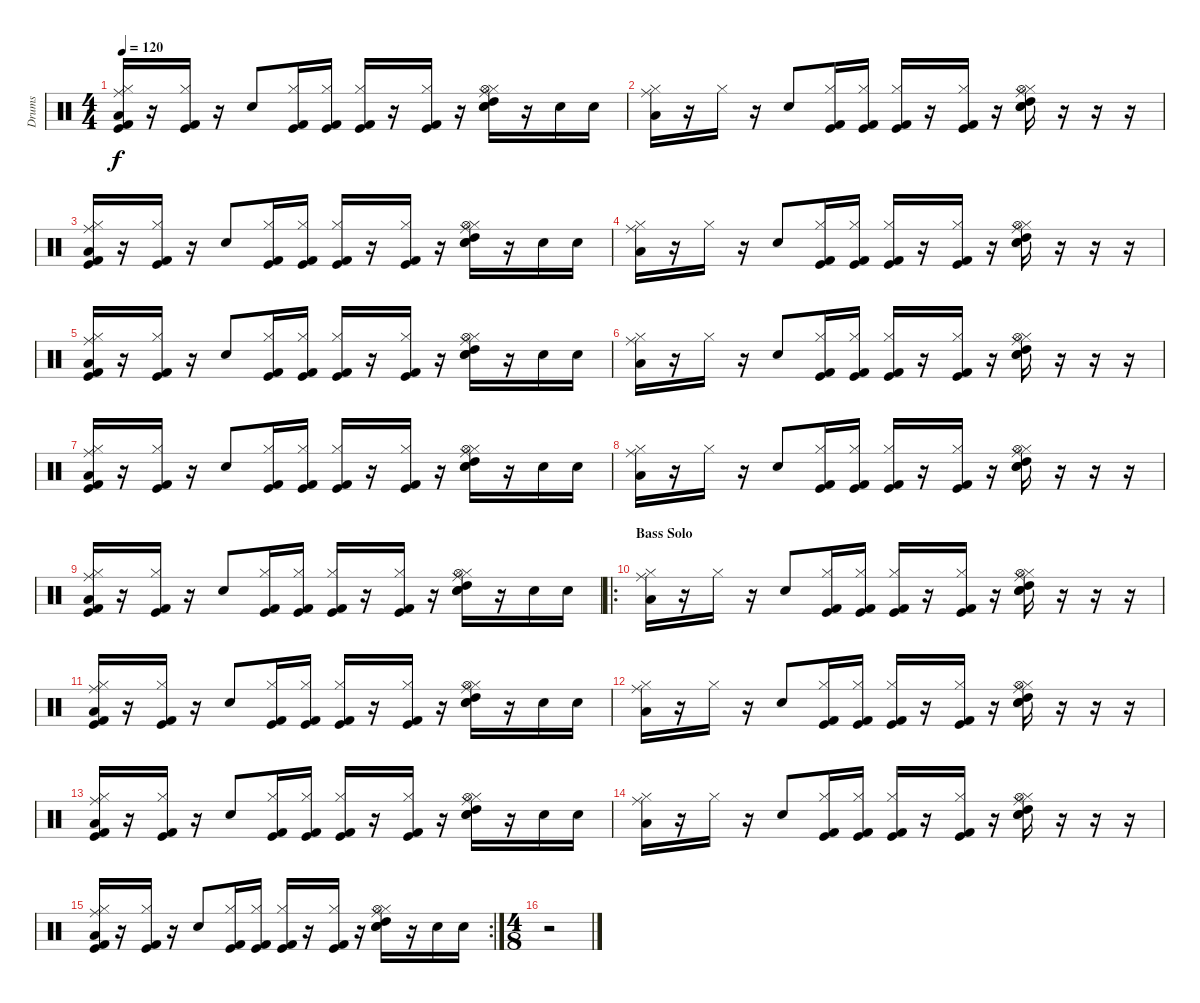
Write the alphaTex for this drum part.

\track ("Drums" "Drums") {instrument percussion}
\staff {score}
\articulation defaults
\ts (4 4)
\tempo 120
\clef neutral
\ks c
("Kick (hit)" "Hi-Hat (closed)" "Ride (middle)" "Low Tom (hit)" "Kick (hit) 2").16{dy f} r.16 ("Kick (hit)" "Hi-Hat (closed)" "Kick (hit) 2").16 r.16 "Snare (hit) 2".8 ("Kick (hit)" "Hi-Hat (closed)" "Kick (hit) 2").16 ("Kick (hit)" "Hi-Hat (closed)" "Kick (hit) 2").16 ("Kick (hit)" "Hi-Hat (closed)" "Kick (hit) 2").16 r.16 ("Kick (hit)" "Hi-Hat (closed)" "Kick (hit) 2").16 r.16 ("Snare (hit) 2" "Ride (middle)" "Hi-Hat (closed)" "Hi-Hat (open)" "High Tom (hit)" "Electric Snare (hit)").16 r.16 "Electric Snare (hit)".16 "Electric Snare (hit)".16 |
("Hi-Hat (closed)" "Ride (middle)" "Low Tom (hit)").16 r.16 "Hi-Hat (closed)".16 r.16 "Snare (hit) 2".8 ("Kick (hit)" "Hi-Hat (closed)" "Kick (hit) 2").16 ("Kick (hit)" "Hi-Hat (closed)" "Kick (hit) 2").16 ("Kick (hit)" "Hi-Hat (closed)" "Kick (hit) 2").16 r.16 ("Kick (hit)" "Hi-Hat (closed)" "Kick (hit) 2").16 r.16 ("Snare (hit) 2" "Ride (middle)" "Hi-Hat (closed)" "Hi-Hat (open)" "High Tom (hit)" "Electric Snare (hit)").16 r.16 r.16 r.16 |
("Kick (hit)" "Hi-Hat (closed)" "Ride (middle)" "Low Tom (hit)" "Kick (hit) 2").16 r.16 ("Kick (hit)" "Hi-Hat (closed)" "Kick (hit) 2").16 r.16 "Snare (hit) 2".8 ("Kick (hit)" "Hi-Hat (closed)" "Kick (hit) 2").16 ("Kick (hit)" "Hi-Hat (closed)" "Kick (hit) 2").16 ("Kick (hit)" "Hi-Hat (closed)" "Kick (hit) 2").16 r.16 ("Kick (hit)" "Hi-Hat (closed)" "Kick (hit) 2").16 r.16 ("Snare (hit) 2" "Ride (middle)" "Hi-Hat (closed)" "Hi-Hat (open)" "High Tom (hit)" "Electric Snare (hit)").16 r.16 "Electric Snare (hit)".16 "Electric Snare (hit)".16 |
("Hi-Hat (closed)" "Ride (middle)" "Low Tom (hit)").16 r.16 "Hi-Hat (closed)".16 r.16 "Snare (hit) 2".8 ("Kick (hit)" "Hi-Hat (closed)" "Kick (hit) 2").16 ("Kick (hit)" "Hi-Hat (closed)" "Kick (hit) 2").16 ("Kick (hit)" "Hi-Hat (closed)" "Kick (hit) 2").16 r.16 ("Kick (hit)" "Hi-Hat (closed)" "Kick (hit) 2").16 r.16 ("Snare (hit) 2" "Ride (middle)" "Hi-Hat (closed)" "Hi-Hat (open)" "High Tom (hit)" "Electric Snare (hit)").16 r.16 r.16 r.16 |
("Kick (hit)" "Hi-Hat (closed)" "Ride (middle)" "Low Tom (hit)" "Kick (hit) 2").16 r.16 ("Kick (hit)" "Hi-Hat (closed)" "Kick (hit) 2").16 r.16 "Snare (hit) 2".8 ("Kick (hit)" "Hi-Hat (closed)" "Kick (hit) 2").16 ("Kick (hit)" "Hi-Hat (closed)" "Kick (hit) 2").16 ("Kick (hit)" "Hi-Hat (closed)" "Kick (hit) 2").16 r.16 ("Kick (hit)" "Hi-Hat (closed)" "Kick (hit) 2").16 r.16 ("Snare (hit) 2" "Ride (middle)" "Hi-Hat (closed)" "Hi-Hat (open)" "High Tom (hit)" "Electric Snare (hit)").16 r.16 "Electric Snare (hit)".16 "Electric Snare (hit)".16 |
("Hi-Hat (closed)" "Ride (middle)" "Low Tom (hit)").16 r.16 "Hi-Hat (closed)".16 r.16 "Snare (hit) 2".8 ("Kick (hit)" "Hi-Hat (closed)" "Kick (hit) 2").16 ("Kick (hit)" "Hi-Hat (closed)" "Kick (hit) 2").16 ("Kick (hit)" "Hi-Hat (closed)" "Kick (hit) 2").16 r.16 ("Kick (hit)" "Hi-Hat (closed)" "Kick (hit) 2").16 r.16 ("Snare (hit) 2" "Ride (middle)" "Hi-Hat (closed)" "Hi-Hat (open)" "High Tom (hit)" "Electric Snare (hit)").16 r.16 r.16 r.16 |
("Kick (hit)" "Hi-Hat (closed)" "Ride (middle)" "Low Tom (hit)" "Kick (hit) 2").16 r.16 ("Kick (hit)" "Hi-Hat (closed)" "Kick (hit) 2").16 r.16 "Snare (hit) 2".8 ("Kick (hit)" "Hi-Hat (closed)" "Kick (hit) 2").16 ("Kick (hit)" "Hi-Hat (closed)" "Kick (hit) 2").16 ("Kick (hit)" "Hi-Hat (closed)" "Kick (hit) 2").16 r.16 ("Kick (hit)" "Hi-Hat (closed)" "Kick (hit) 2").16 r.16 ("Snare (hit) 2" "Ride (middle)" "Hi-Hat (closed)" "Hi-Hat (open)" "High Tom (hit)" "Electric Snare (hit)").16 r.16 "Electric Snare (hit)".16 "Electric Snare (hit)".16 |
("Hi-Hat (closed)" "Ride (middle)" "Low Tom (hit)").16 r.16 "Hi-Hat (closed)".16 r.16 "Snare (hit) 2".8 ("Kick (hit)" "Hi-Hat (closed)" "Kick (hit) 2").16 ("Kick (hit)" "Hi-Hat (closed)" "Kick (hit) 2").16 ("Kick (hit)" "Hi-Hat (closed)" "Kick (hit) 2").16 r.16 ("Kick (hit)" "Hi-Hat (closed)" "Kick (hit) 2").16 r.16 ("Snare (hit) 2" "Ride (middle)" "Hi-Hat (closed)" "Hi-Hat (open)" "High Tom (hit)" "Electric Snare (hit)").16 r.16 r.16 r.16 |
("Kick (hit)" "Hi-Hat (closed)" "Ride (middle)" "Low Tom (hit)" "Kick (hit) 2").16 r.16 ("Kick (hit)" "Hi-Hat (closed)" "Kick (hit) 2").16 r.16 "Snare (hit) 2".8 ("Kick (hit)" "Hi-Hat (closed)" "Kick (hit) 2").16 ("Kick (hit)" "Hi-Hat (closed)" "Kick (hit) 2").16 ("Kick (hit)" "Hi-Hat (closed)" "Kick (hit) 2").16 r.16 ("Kick (hit)" "Hi-Hat (closed)" "Kick (hit) 2").16 r.16 ("Snare (hit) 2" "Ride (middle)" "Hi-Hat (closed)" "Hi-Hat (open)" "High Tom (hit)" "Electric Snare (hit)").16 r.16 "Electric Snare (hit)".16 "Electric Snare (hit)".16 |
\ro
\section ("" "Bass Solo")
("Hi-Hat (closed)" "Ride (middle)" "Low Tom (hit)").16 r.16 "Hi-Hat (closed)".16 r.16 "Snare (hit) 2".8 ("Kick (hit)" "Hi-Hat (closed)" "Kick (hit) 2").16 ("Kick (hit)" "Hi-Hat (closed)" "Kick (hit) 2").16 ("Kick (hit)" "Hi-Hat (closed)" "Kick (hit) 2").16 r.16 ("Kick (hit)" "Hi-Hat (closed)" "Kick (hit) 2").16 r.16 ("Snare (hit) 2" "Ride (middle)" "Hi-Hat (closed)" "Hi-Hat (open)" "High Tom (hit)" "Electric Snare (hit)").16 r.16 r.16 r.16 |
("Kick (hit)" "Hi-Hat (closed)" "Ride (middle)" "Low Tom (hit)" "Kick (hit) 2").16 r.16 ("Kick (hit)" "Hi-Hat (closed)" "Kick (hit) 2").16 r.16 "Snare (hit) 2".8 ("Kick (hit)" "Hi-Hat (closed)" "Kick (hit) 2").16 ("Kick (hit)" "Hi-Hat (closed)" "Kick (hit) 2").16 ("Kick (hit)" "Hi-Hat (closed)" "Kick (hit) 2").16 r.16 ("Kick (hit)" "Hi-Hat (closed)" "Kick (hit) 2").16 r.16 ("Snare (hit) 2" "Ride (middle)" "Hi-Hat (closed)" "Hi-Hat (open)" "High Tom (hit)" "Electric Snare (hit)").16 r.16 "Electric Snare (hit)".16 "Electric Snare (hit)".16 |
("Hi-Hat (closed)" "Ride (middle)" "Low Tom (hit)").16 r.16 "Hi-Hat (closed)".16 r.16 "Snare (hit) 2".8 ("Kick (hit)" "Hi-Hat (closed)" "Kick (hit) 2").16 ("Kick (hit)" "Hi-Hat (closed)" "Kick (hit) 2").16 ("Kick (hit)" "Hi-Hat (closed)" "Kick (hit) 2").16 r.16 ("Kick (hit)" "Hi-Hat (closed)" "Kick (hit) 2").16 r.16 ("Snare (hit) 2" "Ride (middle)" "Hi-Hat (closed)" "Hi-Hat (open)" "High Tom (hit)" "Electric Snare (hit)").16 r.16 r.16 r.16 |
("Kick (hit)" "Hi-Hat (closed)" "Ride (middle)" "Low Tom (hit)" "Kick (hit) 2").16 r.16 ("Kick (hit)" "Hi-Hat (closed)" "Kick (hit) 2").16 r.16 "Snare (hit) 2".8 ("Kick (hit)" "Hi-Hat (closed)" "Kick (hit) 2").16 ("Kick (hit)" "Hi-Hat (closed)" "Kick (hit) 2").16 ("Kick (hit)" "Hi-Hat (closed)" "Kick (hit) 2").16 r.16 ("Kick (hit)" "Hi-Hat (closed)" "Kick (hit) 2").16 r.16 ("Snare (hit) 2" "Ride (middle)" "Hi-Hat (closed)" "Hi-Hat (open)" "High Tom (hit)" "Electric Snare (hit)").16 r.16 "Electric Snare (hit)".16 "Electric Snare (hit)".16 |
("Hi-Hat (closed)" "Ride (middle)" "Low Tom (hit)").16 r.16 "Hi-Hat (closed)".16 r.16 "Snare (hit) 2".8 ("Kick (hit)" "Hi-Hat (closed)" "Kick (hit) 2").16 ("Kick (hit)" "Hi-Hat (closed)" "Kick (hit) 2").16 ("Kick (hit)" "Hi-Hat (closed)" "Kick (hit) 2").16 r.16 ("Kick (hit)" "Hi-Hat (closed)" "Kick (hit) 2").16 r.16 ("Snare (hit) 2" "Ride (middle)" "Hi-Hat (closed)" "Hi-Hat (open)" "High Tom (hit)" "Electric Snare (hit)").16 r.16 r.16 r.16 |
\rc 2
("Kick (hit)" "Hi-Hat (closed)" "Ride (middle)" "Low Tom (hit)" "Kick (hit) 2").16 r.16 ("Kick (hit)" "Hi-Hat (closed)" "Kick (hit) 2").16 r.16 "Snare (hit) 2".8 ("Kick (hit)" "Hi-Hat (closed)" "Kick (hit) 2").16 ("Kick (hit)" "Hi-Hat (closed)" "Kick (hit) 2").16 ("Kick (hit)" "Hi-Hat (closed)" "Kick (hit) 2").16 r.16 ("Kick (hit)" "Hi-Hat (closed)" "Kick (hit) 2").16 r.16 ("Snare (hit) 2" "Ride (middle)" "Hi-Hat (closed)" "Hi-Hat (open)" "High Tom (hit)" "Electric Snare (hit)").16 r.16 "Electric Snare (hit)".16 "Electric Snare (hit)".16 |
\ts (4 8)
r.2
